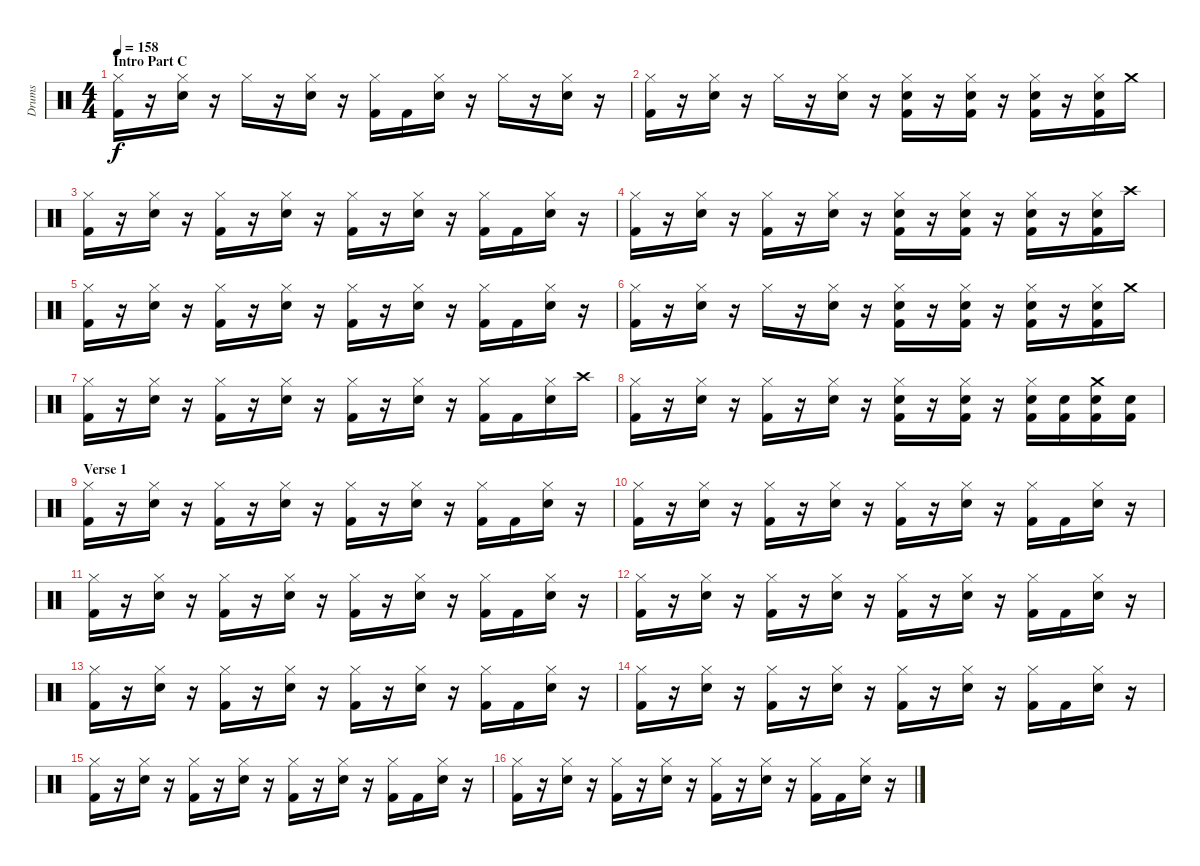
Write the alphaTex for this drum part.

\track ("Drums" "Drums") {instrument percussion}
\staff {score}
\articulation defaults
\ts (4 4)
\section ("" "Intro Part C")
\tempo 158
\clef neutral
\ks c
("Hi-Hat (closed)" "Kick (hit) 2").16{dy f} r.16 ("Hi-Hat (closed)" "Electric Snare (hit)").16 r.16 "Hi-Hat (closed)".16 r.16 ("Hi-Hat (closed)" "Electric Snare (hit)").16 r.16 ("Hi-Hat (closed)" "Kick (hit) 2").16 "Kick (hit) 2".16 ("Hi-Hat (closed)" "Electric Snare (hit)").16 r.16 "Hi-Hat (closed)".16 r.16 ("Hi-Hat (closed)" "Electric Snare (hit)").16 r.16 |
("Hi-Hat (closed)" "Kick (hit) 2").16 r.16 ("Hi-Hat (closed)" "Electric Snare (hit)").16 r.16 "Hi-Hat (closed)".16 r.16 ("Hi-Hat (closed)" "Electric Snare (hit)").16 r.16 ("Hi-Hat (closed)" "Electric Snare (hit)" "Kick (hit) 2").16 r.16 ("Hi-Hat (closed)" "Electric Snare (hit)" "Kick (hit) 2").16 r.16 ("Hi-Hat (closed)" "Electric Snare (hit)" "Kick (hit) 2").16 r.16 ("Hi-Hat (closed)" "Electric Snare (hit)" "Kick (hit) 2").16 "Crash medium (hit)".16 |
("Hi-Hat (closed)" "Kick (hit) 2").16 r.16 ("Hi-Hat (closed)" "Electric Snare (hit)").16 r.16 ("Hi-Hat (closed)" "Kick (hit) 2").16 r.16 ("Hi-Hat (closed)" "Electric Snare (hit)").16 r.16 ("Hi-Hat (closed)" "Kick (hit) 2").16 r.16 ("Hi-Hat (closed)" "Electric Snare (hit)").16 r.16 ("Hi-Hat (closed)" "Kick (hit) 2").16 "Kick (hit) 2".16 ("Hi-Hat (closed)" "Electric Snare (hit)").16 r.16 |
("Hi-Hat (closed)" "Kick (hit) 2").16 r.16 ("Hi-Hat (closed)" "Electric Snare (hit)").16 r.16 ("Hi-Hat (closed)" "Kick (hit) 2").16 r.16 ("Hi-Hat (closed)" "Electric Snare (hit)").16 r.16 ("Hi-Hat (closed)" "Electric Snare (hit)" "Kick (hit) 2").16 r.16 ("Hi-Hat (closed)" "Electric Snare (hit)" "Kick (hit) 2").16 r.16 ("Hi-Hat (closed)" "Electric Snare (hit)" "Kick (hit) 2").16 r.16 ("Hi-Hat (closed)" "Electric Snare (hit)" "Kick (hit) 2").16 "Crash high (hit)".16 |
("Hi-Hat (closed)" "Kick (hit) 2").16 r.16 ("Hi-Hat (closed)" "Electric Snare (hit)").16 r.16 ("Hi-Hat (closed)" "Kick (hit) 2").16 r.16 ("Hi-Hat (closed)" "Electric Snare (hit)").16 r.16 ("Hi-Hat (closed)" "Kick (hit) 2").16 r.16 ("Hi-Hat (closed)" "Electric Snare (hit)").16 r.16 ("Hi-Hat (closed)" "Kick (hit) 2").16 "Kick (hit) 2".16 ("Hi-Hat (closed)" "Electric Snare (hit)").16 r.16 |
("Hi-Hat (closed)" "Kick (hit) 2").16 r.16 ("Hi-Hat (closed)" "Electric Snare (hit)").16 r.16 "Hi-Hat (closed)".16 r.16 ("Hi-Hat (closed)" "Electric Snare (hit)").16 r.16 ("Hi-Hat (closed)" "Electric Snare (hit)" "Kick (hit) 2").16 r.16 ("Hi-Hat (closed)" "Electric Snare (hit)" "Kick (hit) 2").16 r.16 ("Hi-Hat (closed)" "Electric Snare (hit)" "Kick (hit) 2").16 r.16 ("Hi-Hat (closed)" "Electric Snare (hit)" "Kick (hit) 2").16 "Crash medium (hit)".16 |
("Hi-Hat (closed)" "Kick (hit) 2").16 r.16 ("Hi-Hat (closed)" "Electric Snare (hit)").16 r.16 ("Hi-Hat (closed)" "Kick (hit) 2").16 r.16 ("Hi-Hat (closed)" "Electric Snare (hit)").16 r.16 ("Hi-Hat (closed)" "Kick (hit) 2").16 r.16 ("Hi-Hat (closed)" "Electric Snare (hit)").16 r.16 ("Hi-Hat (closed)" "Kick (hit) 2").16 "Kick (hit) 2".16 ("Hi-Hat (closed)" "Electric Snare (hit)").16 "Crash high (hit)".16 |
("Hi-Hat (closed)" "Kick (hit) 2").16 r.16 ("Hi-Hat (closed)" "Electric Snare (hit)").16 r.16 ("Hi-Hat (closed)" "Kick (hit) 2").16 r.16 ("Hi-Hat (closed)" "Electric Snare (hit)").16 r.16 ("Hi-Hat (closed)" "Electric Snare (hit)" "Kick (hit) 2").16 r.16 ("Hi-Hat (closed)" "Electric Snare (hit)" "Kick (hit) 2").16 r.16 ("Hi-Hat (closed)" "Electric Snare (hit)" "Kick (hit) 2").16 ("Electric Snare (hit)" "Kick (hit) 2").16 ("Crash medium (hit)" "Electric Snare (hit)" "Kick (hit) 2").16 ("Electric Snare (hit)" "Kick (hit) 2").16 |
\section ("" "Verse 1")
("Hi-Hat (closed)" "Kick (hit) 2").16 r.16 ("Hi-Hat (closed)" "Electric Snare (hit)").16 r.16 ("Hi-Hat (closed)" "Kick (hit) 2").16 r.16 ("Hi-Hat (closed)" "Electric Snare (hit)").16 r.16 ("Hi-Hat (closed)" "Kick (hit) 2").16 r.16 ("Hi-Hat (closed)" "Electric Snare (hit)").16 r.16 ("Hi-Hat (closed)" "Kick (hit) 2").16 "Kick (hit) 2".16 ("Hi-Hat (closed)" "Electric Snare (hit)").16 r.16 |
("Hi-Hat (closed)" "Kick (hit) 2").16 r.16 ("Hi-Hat (closed)" "Electric Snare (hit)").16 r.16 ("Hi-Hat (closed)" "Kick (hit) 2").16 r.16 ("Hi-Hat (closed)" "Electric Snare (hit)").16 r.16 ("Hi-Hat (closed)" "Kick (hit) 2").16 r.16 ("Hi-Hat (closed)" "Electric Snare (hit)").16 r.16 ("Hi-Hat (closed)" "Kick (hit) 2").16 "Kick (hit) 2".16 ("Hi-Hat (closed)" "Electric Snare (hit)").16 r.16 |
("Hi-Hat (closed)" "Kick (hit) 2").16 r.16 ("Hi-Hat (closed)" "Electric Snare (hit)").16 r.16 ("Hi-Hat (closed)" "Kick (hit) 2").16 r.16 ("Hi-Hat (closed)" "Electric Snare (hit)").16 r.16 ("Hi-Hat (closed)" "Kick (hit) 2").16 r.16 ("Hi-Hat (closed)" "Electric Snare (hit)").16 r.16 ("Hi-Hat (closed)" "Kick (hit) 2").16 "Kick (hit) 2".16 ("Hi-Hat (closed)" "Electric Snare (hit)").16 r.16 |
("Hi-Hat (closed)" "Kick (hit) 2").16 r.16 ("Hi-Hat (closed)" "Electric Snare (hit)").16 r.16 ("Hi-Hat (closed)" "Kick (hit) 2").16 r.16 ("Hi-Hat (closed)" "Electric Snare (hit)").16 r.16 ("Hi-Hat (closed)" "Kick (hit) 2").16 r.16 ("Hi-Hat (closed)" "Electric Snare (hit)").16 r.16 ("Hi-Hat (closed)" "Kick (hit) 2").16 "Kick (hit) 2".16 ("Hi-Hat (closed)" "Electric Snare (hit)").16 r.16 |
("Hi-Hat (closed)" "Kick (hit) 2").16 r.16 ("Hi-Hat (closed)" "Electric Snare (hit)").16 r.16 ("Hi-Hat (closed)" "Kick (hit) 2").16 r.16 ("Hi-Hat (closed)" "Electric Snare (hit)").16 r.16 ("Hi-Hat (closed)" "Kick (hit) 2").16 r.16 ("Hi-Hat (closed)" "Electric Snare (hit)").16 r.16 ("Hi-Hat (closed)" "Kick (hit) 2").16 "Kick (hit) 2".16 ("Hi-Hat (closed)" "Electric Snare (hit)").16 r.16 |
("Hi-Hat (closed)" "Kick (hit) 2").16 r.16 ("Hi-Hat (closed)" "Electric Snare (hit)").16 r.16 ("Hi-Hat (closed)" "Kick (hit) 2").16 r.16 ("Hi-Hat (closed)" "Electric Snare (hit)").16 r.16 ("Hi-Hat (closed)" "Kick (hit) 2").16 r.16 ("Hi-Hat (closed)" "Electric Snare (hit)").16 r.16 ("Hi-Hat (closed)" "Kick (hit) 2").16 "Kick (hit) 2".16 ("Hi-Hat (closed)" "Electric Snare (hit)").16 r.16 |
("Hi-Hat (closed)" "Kick (hit) 2").16 r.16 ("Hi-Hat (closed)" "Electric Snare (hit)").16 r.16 ("Hi-Hat (closed)" "Kick (hit) 2").16 r.16 ("Hi-Hat (closed)" "Electric Snare (hit)").16 r.16 ("Hi-Hat (closed)" "Kick (hit) 2").16 r.16 ("Hi-Hat (closed)" "Electric Snare (hit)").16 r.16 ("Hi-Hat (closed)" "Kick (hit) 2").16 "Kick (hit) 2".16 ("Hi-Hat (closed)" "Electric Snare (hit)").16 r.16 |
("Hi-Hat (closed)" "Kick (hit) 2").16 r.16 ("Hi-Hat (closed)" "Electric Snare (hit)").16 r.16 ("Hi-Hat (closed)" "Kick (hit) 2").16 r.16 ("Hi-Hat (closed)" "Electric Snare (hit)").16 r.16 ("Hi-Hat (closed)" "Kick (hit) 2").16 r.16 ("Hi-Hat (closed)" "Electric Snare (hit)").16 r.16 ("Hi-Hat (closed)" "Kick (hit) 2").16 "Kick (hit) 2".16 ("Hi-Hat (closed)" "Electric Snare (hit)").16 r.16
